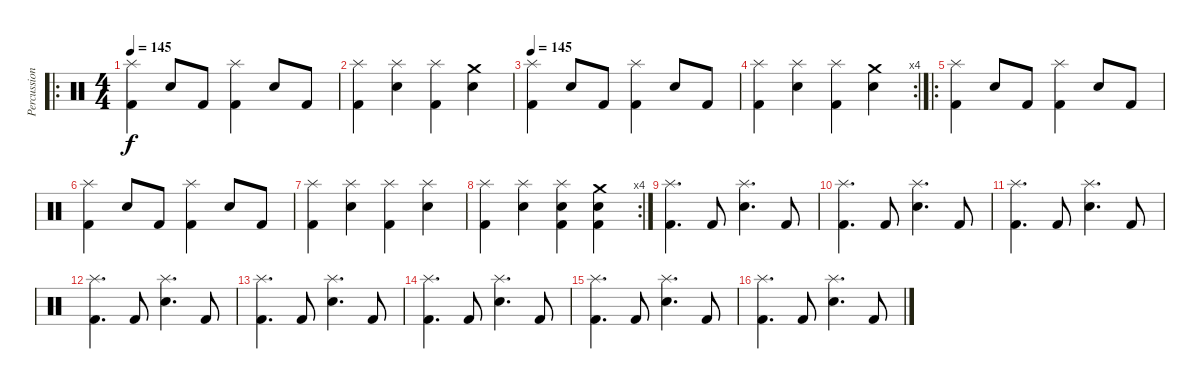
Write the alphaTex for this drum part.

\track ("Percussion" "Percussion") {instrument percussion}
\staff {score}
\articulation defaults
\ro
\ts (4 4)
\tempo 145
\clef neutral
\ks c
("Splash (hit)" "Kick (hit) 2").4{dy f} "Electric Snare (hit)".8 "Kick (hit) 2".8 ("Splash (hit)" "Kick (hit) 2").4 "Electric Snare (hit)".8 "Kick (hit) 2".8 |
("Splash (hit)" "Kick (hit) 2").4 ("Splash (hit)" "Electric Snare (hit)").4 ("Splash (hit)" "Kick (hit) 2").4 ("Crash medium (hit)" "Electric Snare (hit)").4 |
\tempo 145
("Splash (hit)" "Kick (hit) 2").4 "Electric Snare (hit)".8 "Kick (hit) 2".8 ("Splash (hit)" "Kick (hit) 2").4 "Electric Snare (hit)".8 "Kick (hit) 2".8 |
\rc 4
("Splash (hit)" "Kick (hit) 2").4 ("Splash (hit)" "Electric Snare (hit)").4 ("Splash (hit)" "Kick (hit) 2").4 ("Crash medium (hit)" "Electric Snare (hit)").4 |
\ro
("Splash (hit)" "Kick (hit) 2").4 "Electric Snare (hit)".8 "Kick (hit) 2".8 ("Splash (hit)" "Kick (hit) 2").4 "Electric Snare (hit)".8 "Kick (hit) 2".8 |
("Splash (hit)" "Kick (hit) 2").4 "Electric Snare (hit)".8 "Kick (hit) 2".8 ("Splash (hit)" "Kick (hit) 2").4 "Electric Snare (hit)".8 "Kick (hit) 2".8 |
("Splash (hit)" "Kick (hit) 2").4 ("Splash (hit)" "Electric Snare (hit)").4 ("Splash (hit)" "Kick (hit) 2").4 ("Splash (hit)" "Electric Snare (hit)").4 |
\rc 4
("Splash (hit)" "Kick (hit) 2").4 ("Splash (hit)" "Electric Snare (hit)").4 ("Splash (hit)" "Electric Snare (hit)" "Kick (hit) 2").4 ("Crash medium (hit)" "Electric Snare (hit)" "Kick (hit) 2").4 |
("Splash (hit)" "Kick (hit) 2").4{d} "Kick (hit) 2".8 ("Splash (hit)" "Electric Snare (hit)").4{d} "Kick (hit) 2".8 |
("Splash (hit)" "Kick (hit) 2").4{d} "Kick (hit) 2".8 ("Splash (hit)" "Electric Snare (hit)").4{d} "Kick (hit) 2".8 |
("Splash (hit)" "Kick (hit) 2").4{d} "Kick (hit) 2".8 ("Splash (hit)" "Electric Snare (hit)").4{d} "Kick (hit) 2".8 |
("Splash (hit)" "Kick (hit) 2").4{d} "Kick (hit) 2".8 ("Splash (hit)" "Electric Snare (hit)").4{d} "Kick (hit) 2".8 |
("Splash (hit)" "Kick (hit) 2").4{d} "Kick (hit) 2".8 ("Splash (hit)" "Electric Snare (hit)").4{d} "Kick (hit) 2".8 |
("Splash (hit)" "Kick (hit) 2").4{d} "Kick (hit) 2".8 ("Splash (hit)" "Electric Snare (hit)").4{d} "Kick (hit) 2".8 |
("Splash (hit)" "Kick (hit) 2").4{d} "Kick (hit) 2".8 ("Splash (hit)" "Electric Snare (hit)").4{d} "Kick (hit) 2".8 |
("Splash (hit)" "Kick (hit) 2").4{d} "Kick (hit) 2".8 ("Splash (hit)" "Electric Snare (hit)").4{d} "Kick (hit) 2".8
